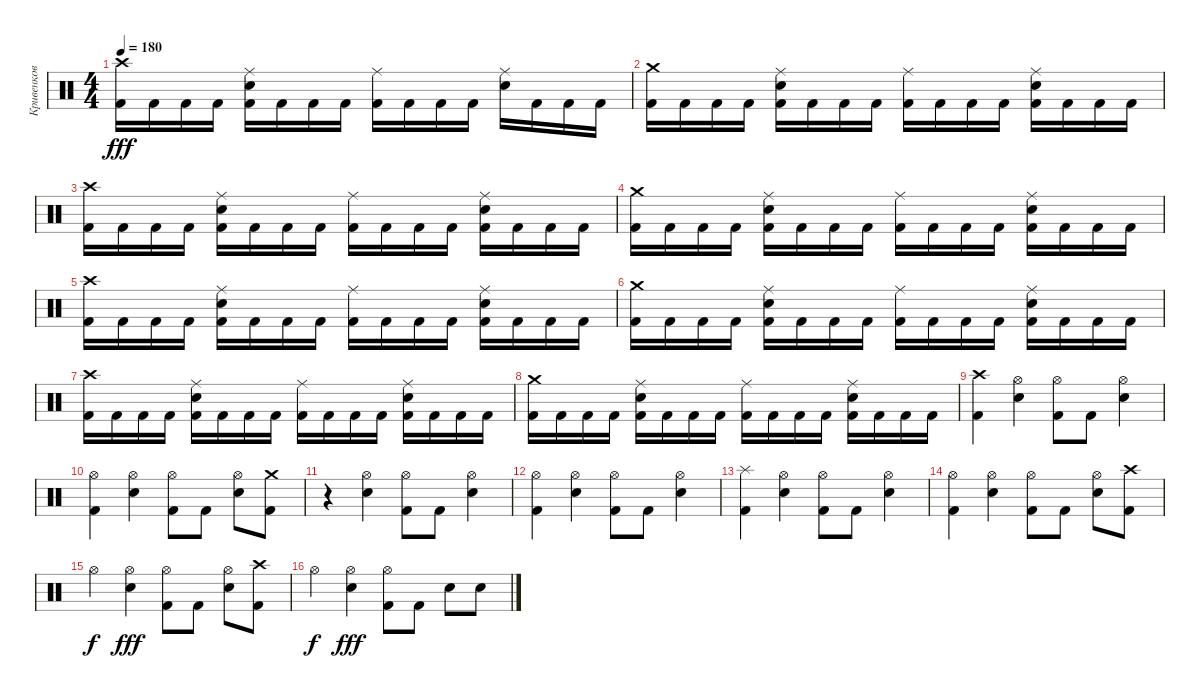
\track ("Кривенков" "Кривенков") {instrument percussion}
\staff {score}
\articulation defaults
\ts (4 4)
\tempo 180
\clef neutral
\ks c
("Kick (hit) 2" "Crash high (hit)").16{dy fff} "Kick (hit) 2".16 "Kick (hit) 2".16 "Kick (hit) 2".16 ("Kick (hit) 2" "Snare (hit) 2" "Ride (middle)").16 "Kick (hit) 2".16 "Kick (hit) 2".16 "Kick (hit) 2".16 ("Kick (hit) 2" "Ride (middle)").16 "Kick (hit) 2".16 "Kick (hit) 2".16 "Kick (hit) 2".16 ("Ride (middle)" "Snare (hit) 2").16 "Kick (hit) 2".16 "Kick (hit) 2".16 "Kick (hit) 2".16 |
("Kick (hit) 2" "Crash medium (hit)").16 "Kick (hit) 2".16 "Kick (hit) 2".16 "Kick (hit) 2".16 ("Kick (hit) 2" "Snare (hit) 2" "Ride (middle)").16 "Kick (hit) 2".16 "Kick (hit) 2".16 "Kick (hit) 2".16 ("Ride (middle)" "Kick (hit) 2").16 "Kick (hit) 2".16 "Kick (hit) 2".16 "Kick (hit) 2".16 ("Ride (middle)" "Kick (hit) 2" "Snare (hit) 2").16 "Kick (hit) 2".16 "Kick (hit) 2".16 "Kick (hit) 2".16 |
("Kick (hit) 2" "Crash high (hit)").16 "Kick (hit) 2".16 "Kick (hit) 2".16 "Kick (hit) 2".16 ("Kick (hit) 2" "Ride (middle)" "Snare (hit) 2").16 "Kick (hit) 2".16 "Kick (hit) 2".16 "Kick (hit) 2".16 ("Kick (hit) 2" "Ride (middle)").16 "Kick (hit) 2".16 "Kick (hit) 2".16 "Kick (hit) 2".16 ("Ride (middle)" "Snare (hit) 2" "Kick (hit) 2").16 "Kick (hit) 2".16 "Kick (hit) 2".16 "Kick (hit) 2".16 |
("Crash medium (hit)" "Kick (hit) 2").16 "Kick (hit) 2".16 "Kick (hit) 2".16 "Kick (hit) 2".16 ("Kick (hit) 2" "Snare (hit) 2" "Ride (middle)").16 "Kick (hit) 2".16 "Kick (hit) 2".16 "Kick (hit) 2".16 ("Ride (middle)" "Kick (hit) 2").16 "Kick (hit) 2".16 "Kick (hit) 2".16 "Kick (hit) 2".16 ("Snare (hit) 2" "Kick (hit) 2" "Ride (middle)").16 "Kick (hit) 2".16 "Kick (hit) 2".16 "Kick (hit) 2".16 |
("Kick (hit) 2" "Crash high (hit)").16 "Kick (hit) 2".16 "Kick (hit) 2".16 "Kick (hit) 2".16 ("Kick (hit) 2" "Snare (hit) 2" "Ride (middle)").16 "Kick (hit) 2".16 "Kick (hit) 2".16 "Kick (hit) 2".16 ("Ride (middle)" "Kick (hit) 2").16 "Kick (hit) 2".16 "Kick (hit) 2".16 "Kick (hit) 2".16 ("Snare (hit) 2" "Ride (middle)" "Kick (hit) 2").16 "Kick (hit) 2".16 "Kick (hit) 2".16 "Kick (hit) 2".16 |
("Crash medium (hit)" "Kick (hit) 2").16 "Kick (hit) 2".16 "Kick (hit) 2".16 "Kick (hit) 2".16 ("Ride (middle)" "Kick (hit) 2" "Snare (hit) 2").16 "Kick (hit) 2".16 "Kick (hit) 2".16 "Kick (hit) 2".16 ("Kick (hit) 2" "Ride (middle)").16 "Kick (hit) 2".16 "Kick (hit) 2".16 "Kick (hit) 2".16 ("Ride (middle)" "Snare (hit) 2" "Kick (hit) 2").16 "Kick (hit) 2".16 "Kick (hit) 2".16 "Kick (hit) 2".16 |
("Crash high (hit)" "Kick (hit) 2").16 "Kick (hit) 2".16 "Kick (hit) 2".16 "Kick (hit) 2".16 ("Ride (middle)" "Kick (hit) 2" "Snare (hit) 2").16 "Kick (hit) 2".16 "Kick (hit) 2".16 "Kick (hit) 2".16 ("Kick (hit) 2" "Ride (middle)").16 "Kick (hit) 2".16 "Kick (hit) 2".16 "Kick (hit) 2".16 ("Snare (hit) 2" "Ride (middle)" "Kick (hit) 2").16 "Kick (hit) 2".16 "Kick (hit) 2".16 "Kick (hit) 2".16 |
("Kick (hit) 2" "Crash medium (hit)").16 "Kick (hit) 2".16 "Kick (hit) 2".16 "Kick (hit) 2".16 ("Kick (hit) 2" "Ride (middle)" "Snare (hit) 2").16 "Kick (hit) 2".16 "Kick (hit) 2".16 "Kick (hit) 2".16 ("Kick (hit) 2" "Ride (middle)").16 "Kick (hit) 2".16 "Kick (hit) 2".16 "Kick (hit) 2".16 ("Kick (hit) 2" "Ride (middle)" "Snare (hit) 2").16 "Kick (hit) 2".16 "Kick (hit) 2".16 "Kick (hit) 2".16 |
("Kick (hit) 2" "Crash high (hit)").4 ("Hi-Hat (open)" "Snare (hit) 2").4 ("Kick (hit) 2" "Hi-Hat (open)").8 "Kick (hit) 2".8 ("Snare (hit) 2" "Hi-Hat (open)").4 |
("Hi-Hat (open)" "Kick (hit) 2").4 ("Snare (hit) 2" "Hi-Hat (open)").4 ("Kick (hit) 2" "Hi-Hat (open)").8 "Kick (hit) 2".8 ("Hi-Hat (open)" "Snare (hit) 2").8 ("Kick (hit) 2" "Crash medium (hit)").8 |
r.4 ("Snare (hit) 2" "Hi-Hat (open)").4 ("Kick (hit) 2" "Hi-Hat (open)").8 "Kick (hit) 2".8 ("Hi-Hat (open)" "Snare (hit) 2").4 |
("Kick (hit) 2" "Hi-Hat (open)").4 ("Hi-Hat (open)" "Snare (hit) 2").4 ("Kick (hit) 2" "Hi-Hat (open)").8 "Kick (hit) 2".8 ("Hi-Hat (open)" "Snare (hit) 2").4 |
("Kick (hit) 2" "Splash (hit)").4 ("Hi-Hat (open)" "Snare (hit) 2").4 ("Hi-Hat (open)" "Kick (hit) 2").8 "Kick (hit) 2".8 ("Snare (hit) 2" "Hi-Hat (open)").4 |
("Kick (hit) 2" "Hi-Hat (open)").4 ("Snare (hit) 2" "Hi-Hat (open)").4 ("Hi-Hat (open)" "Kick (hit) 2").8 "Kick (hit) 2".8 ("Snare (hit) 2" "Hi-Hat (open)").8 ("Crash high (hit)" "Kick (hit) 2").8 |
"Hi-Hat (open)".4{dy f} ("Hi-Hat (open)" "Snare (hit) 2").4{dy fff} ("Kick (hit) 2" "Hi-Hat (open)").8 "Kick (hit) 2".8 ("Hi-Hat (open)" "Snare (hit) 2").8 ("Kick (hit) 2" "Crash high (hit)").8 |
"Hi-Hat (open)".4{dy f} ("Hi-Hat (open)" "Snare (hit) 2").4{dy fff} ("Hi-Hat (open)" "Kick (hit) 2").8 "Kick (hit) 2".8 "Snare (hit) 2".8 "Snare (hit) 2".8
